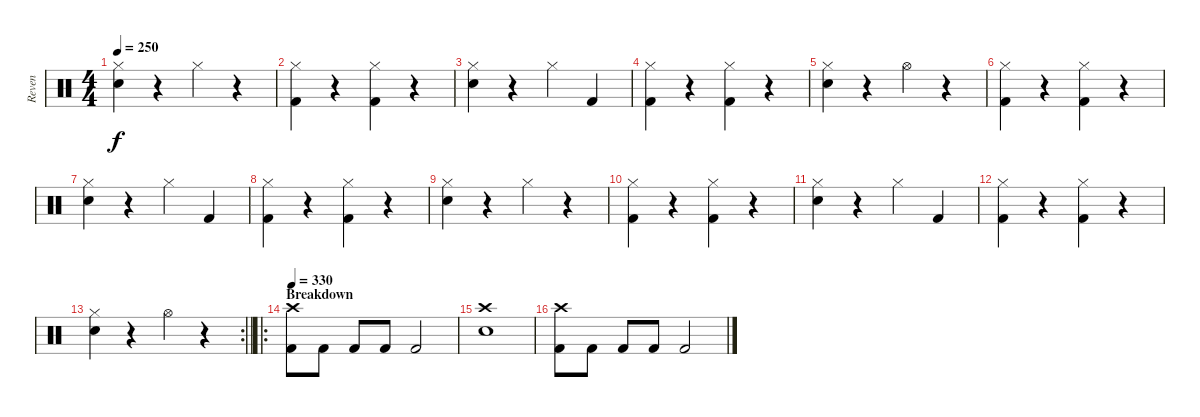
\track ("Reven" "Reven") {instrument percussion}
\staff {score}
\articulation defaults
\ts (4 4)
\tempo 250
\clef neutral
\ks c
("Hi-Hat (closed)" "Electric Snare (hit)").4{dy f} r.4 "Hi-Hat (closed)".4 r.4 |
("Hi-Hat (closed)" "Kick (hit) 2").4 r.4 ("Hi-Hat (closed)" "Kick (hit) 2").4 r.4 |
("Hi-Hat (closed)" "Electric Snare (hit)").4 r.4 "Hi-Hat (closed)".4 "Kick (hit) 2".4 |
("Hi-Hat (closed)" "Kick (hit) 2").4 r.4 ("Hi-Hat (closed)" "Kick (hit) 2").4 r.4 |
("Hi-Hat (closed)" "Electric Snare (hit)").4 r.4 "Hi-Hat (open)".4 r.4 |
("Hi-Hat (closed)" "Kick (hit) 2").4 r.4 ("Hi-Hat (closed)" "Kick (hit) 2").4 r.4 |
("Hi-Hat (closed)" "Electric Snare (hit)").4 r.4 "Hi-Hat (closed)".4 "Kick (hit) 2".4 |
("Hi-Hat (closed)" "Kick (hit) 2").4 r.4 ("Hi-Hat (closed)" "Kick (hit) 2").4 r.4 |
("Hi-Hat (closed)" "Electric Snare (hit)").4 r.4 "Hi-Hat (closed)".4 r.4 |
("Hi-Hat (closed)" "Kick (hit) 2").4 r.4 ("Hi-Hat (closed)" "Kick (hit) 2").4 r.4 |
("Hi-Hat (closed)" "Electric Snare (hit)").4 r.4 "Hi-Hat (closed)".4 "Kick (hit) 2".4 |
("Hi-Hat (closed)" "Kick (hit) 2").4 r.4 ("Hi-Hat (closed)" "Kick (hit) 2").4 r.4 |
\rc 2
\barLineRight lightlight
("Hi-Hat (closed)" "Electric Snare (hit)").4 r.4 "Hi-Hat (open)".4 r.4 |
\ro
\section ("" "Breakdown")
\tempo 330
("Crash high (hit)" "Kick (hit) 2").8{volume 16} "Kick (hit) 2".8 "Kick (hit) 2".8 "Kick (hit) 2".8 "Kick (hit) 2".2 |
("Crash high (hit)" "Electric Snare (hit)").1 |
("Crash high (hit)" "Kick (hit) 2").8 "Kick (hit) 2".8 "Kick (hit) 2".8 "Kick (hit) 2".8 "Kick (hit) 2".2
